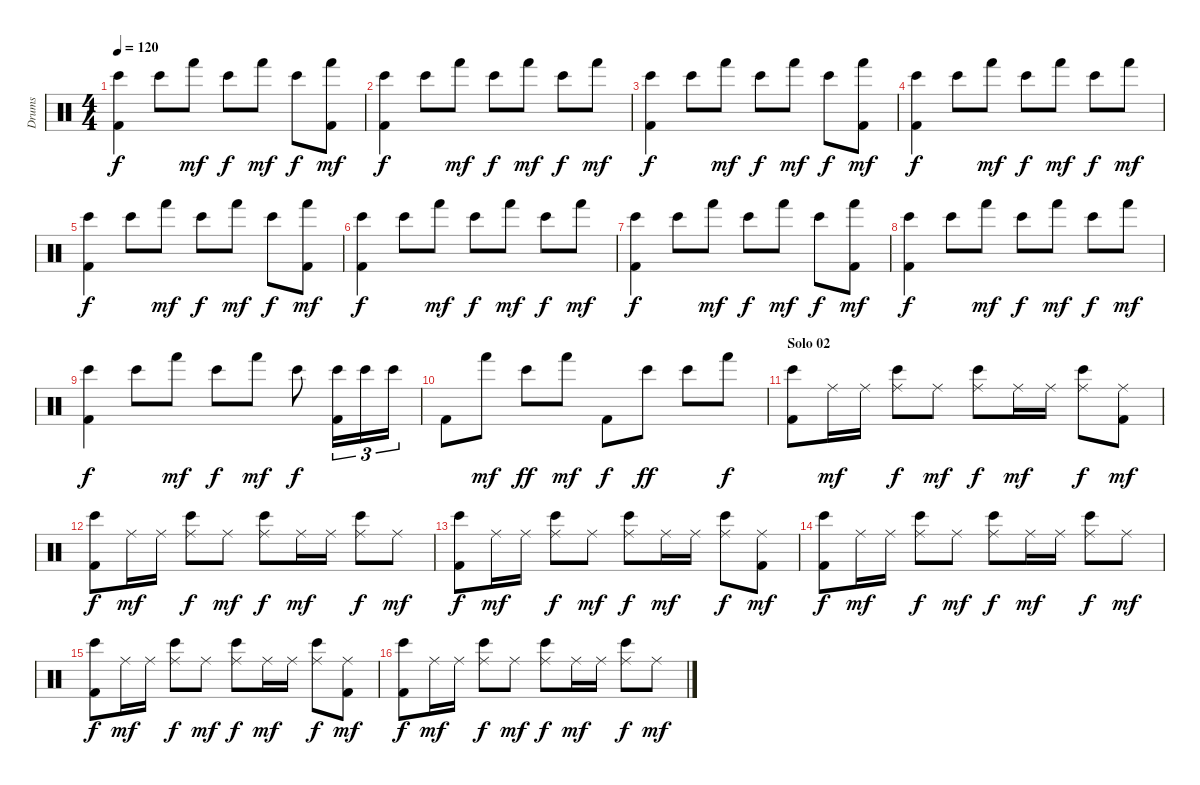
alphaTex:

\track ("Drums" "Drums") {instrument percussion}
\staff {score}
\articulation defaults
\ts (4 4)
\tempo 120
\clef neutral
\ks c
("Kick (hit) 2" "Bongo High (hit)").4{dy f} "Bongo High (hit)".8 "Hand (hit)".8{dy mf} "Bongo High (hit)".8{dy f} "Hand (hit)".8{dy mf} "Bongo High (hit)".8{dy f} ("Kick (hit) 2" "Hand (hit)").8{dy mf} |
("Kick (hit) 2" "Bongo High (hit)").4{dy f} "Bongo High (hit)".8 "Hand (hit)".8{dy mf} "Bongo High (hit)".8{dy f} "Hand (hit)".8{dy mf} "Bongo High (hit)".8{dy f} "Hand (hit)".8{dy mf} |
("Kick (hit) 2" "Bongo High (hit)").4{dy f} "Bongo High (hit)".8 "Hand (hit)".8{dy mf} "Bongo High (hit)".8{dy f} "Hand (hit)".8{dy mf} "Bongo High (hit)".8{dy f} ("Kick (hit) 2" "Hand (hit)").8{dy mf} |
("Kick (hit) 2" "Bongo High (hit)").4{dy f} "Bongo High (hit)".8 "Hand (hit)".8{dy mf} "Bongo High (hit)".8{dy f} "Hand (hit)".8{dy mf} "Bongo High (hit)".8{dy f} "Hand (hit)".8{dy mf} |
("Kick (hit) 2" "Bongo High (hit)").4{dy f} "Bongo High (hit)".8 "Hand (hit)".8{dy mf} "Bongo High (hit)".8{dy f} "Hand (hit)".8{dy mf} "Bongo High (hit)".8{dy f} ("Kick (hit) 2" "Hand (hit)").8{dy mf} |
("Kick (hit) 2" "Bongo High (hit)").4{dy f} "Bongo High (hit)".8 "Hand (hit)".8{dy mf} "Bongo High (hit)".8{dy f} "Hand (hit)".8{dy mf} "Bongo High (hit)".8{dy f} "Hand (hit)".8{dy mf} |
("Kick (hit) 2" "Bongo High (hit)").4{dy f} "Bongo High (hit)".8 "Hand (hit)".8{dy mf} "Bongo High (hit)".8{dy f} "Hand (hit)".8{dy mf} "Bongo High (hit)".8{dy f} ("Kick (hit) 2" "Hand (hit)").8{dy mf} |
("Kick (hit) 2" "Bongo High (hit)").4{dy f} "Bongo High (hit)".8 "Hand (hit)".8{dy mf} "Bongo High (hit)".8{dy f} "Hand (hit)".8{dy mf} "Bongo High (hit)".8{dy f} "Hand (hit)".8{dy mf} |
("Kick (hit) 2" "Bongo High (hit)").4{dy f} "Bongo High (hit)".8 "Hand (hit)".8{dy mf} "Bongo High (hit)".8{dy f} "Hand (hit)".8{dy mf} "Bongo High (hit)".8{dy f} ("Kick (hit) 2" "Bongo High (hit)").16{tu (3 2)} "Bongo High (hit)".16{tu (3 2)} "Bongo High (hit)".16{tu (3 2)} |
"Kick (hit) 2".8 "Hand (hit)".8{dy mf} "Bongo High (hit)".8{dy ff} "Hand (hit)".8{dy mf} "Kick (hit) 2".8{dy f} "Bongo High (hit)".8{dy ff} "Bongo High (hit)".8 "Hand (hit)".8{dy f} |
\section ("" "Solo 02")
("Kick (hit) 2" "Bongo High (hit)").8 "Ride (middle)".16{dy mf} "Ride (middle)".16 ("Bongo High (hit)" "Ride (middle)").8{dy f} "Ride (middle)".8{dy mf} ("Bongo High (hit)" "Ride (middle)").8{dy f} "Ride (middle)".16{dy mf} "Ride (middle)".16 ("Bongo High (hit)" "Ride (middle)").8{dy f} ("Kick (hit) 2" "Ride (middle)").8{dy mf} |
("Kick (hit) 2" "Bongo High (hit)").8{dy f} "Ride (middle)".16{dy mf} "Ride (middle)".16 ("Bongo High (hit)" "Ride (middle)").8{dy f} "Ride (middle)".8{dy mf} ("Bongo High (hit)" "Ride (middle)").8{dy f} "Ride (middle)".16{dy mf} "Ride (middle)".16 ("Bongo High (hit)" "Ride (middle)").8{dy f} "Ride (middle)".8{dy mf} |
("Kick (hit) 2" "Bongo High (hit)").8{dy f} "Ride (middle)".16{dy mf} "Ride (middle)".16 ("Bongo High (hit)" "Ride (middle)").8{dy f} "Ride (middle)".8{dy mf} ("Bongo High (hit)" "Ride (middle)").8{dy f} "Ride (middle)".16{dy mf} "Ride (middle)".16 ("Bongo High (hit)" "Ride (middle)").8{dy f} ("Kick (hit) 2" "Ride (middle)").8{dy mf} |
("Kick (hit) 2" "Bongo High (hit)").8{dy f} "Ride (middle)".16{dy mf} "Ride (middle)".16 ("Bongo High (hit)" "Ride (middle)").8{dy f} "Ride (middle)".8{dy mf} ("Bongo High (hit)" "Ride (middle)").8{dy f} "Ride (middle)".16{dy mf} "Ride (middle)".16 ("Bongo High (hit)" "Ride (middle)").8{dy f} "Ride (middle)".8{dy mf} |
("Kick (hit) 2" "Bongo High (hit)").8{dy f} "Ride (middle)".16{dy mf} "Ride (middle)".16 ("Bongo High (hit)" "Ride (middle)").8{dy f} "Ride (middle)".8{dy mf} ("Bongo High (hit)" "Ride (middle)").8{dy f} "Ride (middle)".16{dy mf} "Ride (middle)".16 ("Bongo High (hit)" "Ride (middle)").8{dy f} ("Kick (hit) 2" "Ride (middle)").8{dy mf} |
("Kick (hit) 2" "Bongo High (hit)").8{dy f} "Ride (middle)".16{dy mf} "Ride (middle)".16 ("Bongo High (hit)" "Ride (middle)").8{dy f} "Ride (middle)".8{dy mf} ("Bongo High (hit)" "Ride (middle)").8{dy f} "Ride (middle)".16{dy mf} "Ride (middle)".16 ("Bongo High (hit)" "Ride (middle)").8{dy f} "Ride (middle)".8{dy mf}
